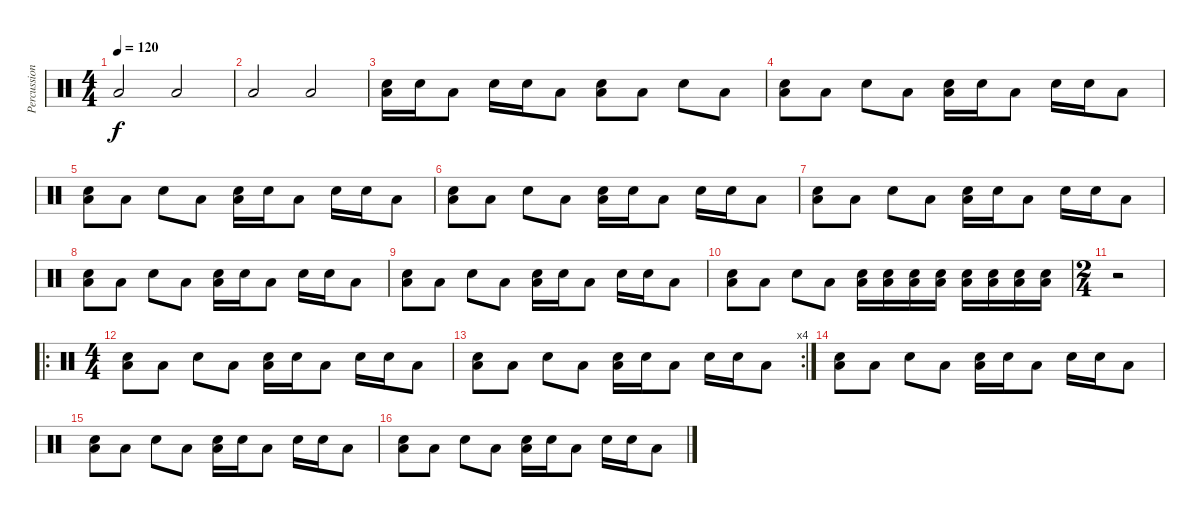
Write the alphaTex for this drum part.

\track ("Percussions" "Percussion") {instrument percussion}
\staff {score}
\articulation defaults
\ts (4 4)
\tempo 120
\clef neutral
\ks c "Low Floor Tom (hit)".2{dy f} "Low Floor Tom (hit)".2
|
"Low Floor Tom (hit)".2 "Low Floor Tom (hit)".2 |
("Electric Snare (hit)" "Low Floor Tom (hit)").16 "Electric Snare (hit)".16 "Low Tom (hit)".8 "Electric Snare (hit)".16 "Electric Snare (hit)".16 "Low Tom (hit)".8 ("Electric Snare (hit)" "Low Floor Tom (hit)").8 "Low Tom (hit)".8 "Electric Snare (hit)".8 "Low Tom (hit)".8 |
("Electric Snare (hit)" "Low Floor Tom (hit)").8 "Low Tom (hit)".8 "Electric Snare (hit)".8 "Low Tom (hit)".8 ("Electric Snare (hit)" "Low Floor Tom (hit)").16 "Electric Snare (hit)".16 "Low Tom (hit)".8 "Electric Snare (hit)".16 "Electric Snare (hit)".16 "Low Tom (hit)".8 |
("Electric Snare (hit)" "Low Floor Tom (hit)").8 "Low Tom (hit)".8 "Electric Snare (hit)".8 "Low Tom (hit)".8 ("Electric Snare (hit)" "Low Floor Tom (hit)").16 "Electric Snare (hit)".16 "Low Tom (hit)".8 "Electric Snare (hit)".16 "Electric Snare (hit)".16 "Low Tom (hit)".8 |
("Electric Snare (hit)" "Low Floor Tom (hit)").8 "Low Tom (hit)".8 "Electric Snare (hit)".8 "Low Tom (hit)".8 ("Electric Snare (hit)" "Low Floor Tom (hit)").16 "Electric Snare (hit)".16 "Low Tom (hit)".8 "Electric Snare (hit)".16 "Electric Snare (hit)".16 "Low Tom (hit)".8 |
("Electric Snare (hit)" "Low Floor Tom (hit)").8 "Low Tom (hit)".8 "Electric Snare (hit)".8 "Low Tom (hit)".8 ("Electric Snare (hit)" "Low Floor Tom (hit)").16 "Electric Snare (hit)".16 "Low Tom (hit)".8 "Electric Snare (hit)".16 "Electric Snare (hit)".16 "Low Tom (hit)".8 |
("Electric Snare (hit)" "Low Floor Tom (hit)").8 "Low Tom (hit)".8 "Electric Snare (hit)".8 "Low Tom (hit)".8 ("Electric Snare (hit)" "Low Floor Tom (hit)").16 "Electric Snare (hit)".16 "Low Tom (hit)".8 "Electric Snare (hit)".16 "Electric Snare (hit)".16 "Low Tom (hit)".8 |
("Electric Snare (hit)" "Low Floor Tom (hit)").8 "Low Tom (hit)".8 "Electric Snare (hit)".8 "Low Tom (hit)".8 ("Electric Snare (hit)" "Low Floor Tom (hit)").16 "Electric Snare (hit)".16 "Low Tom (hit)".8 "Electric Snare (hit)".16 "Electric Snare (hit)".16 "Low Tom (hit)".8 |
("Electric Snare (hit)" "Low Floor Tom (hit)").8 "Low Tom (hit)".8 "Electric Snare (hit)".8 "Low Tom (hit)".8 ("Electric Snare (hit)" "Low Floor Tom (hit)").16 ("Electric Snare (hit)" "Low Floor Tom (hit)").16 ("Electric Snare (hit)" "Low Floor Tom (hit)").16 ("Electric Snare (hit)" "Low Floor Tom (hit)").16 ("Electric Snare (hit)" "Low Floor Tom (hit)").16 ("Electric Snare (hit)" "Low Floor Tom (hit)").16 ("Electric Snare (hit)" "Low Floor Tom (hit)").16 ("Electric Snare (hit)" "Low Floor Tom (hit)").16 |
\ts (2 4)
r.2 |
\ro
\ts (4 4)
("Electric Snare (hit)" "Low Floor Tom (hit)").8 "Low Tom (hit)".8 "Electric Snare (hit)".8 "Low Tom (hit)".8 ("Electric Snare (hit)" "Low Floor Tom (hit)").16 "Electric Snare (hit)".16 "Low Tom (hit)".8 "Electric Snare (hit)".16 "Electric Snare (hit)".16 "Low Tom (hit)".8 |
\rc 4
("Electric Snare (hit)" "Low Floor Tom (hit)").8 "Low Tom (hit)".8 "Electric Snare (hit)".8 "Low Tom (hit)".8 ("Electric Snare (hit)" "Low Floor Tom (hit)").16 "Electric Snare (hit)".16 "Low Tom (hit)".8 "Electric Snare (hit)".16 "Electric Snare (hit)".16 "Low Tom (hit)".8 |
("Electric Snare (hit)" "Low Floor Tom (hit)").8 "Low Tom (hit)".8 "Electric Snare (hit)".8 "Low Tom (hit)".8 ("Electric Snare (hit)" "Low Floor Tom (hit)").16 "Electric Snare (hit)".16 "Low Tom (hit)".8 "Electric Snare (hit)".16 "Electric Snare (hit)".16 "Low Tom (hit)".8 |
("Electric Snare (hit)" "Low Floor Tom (hit)").8 "Low Tom (hit)".8 "Electric Snare (hit)".8 "Low Tom (hit)".8 ("Electric Snare (hit)" "Low Floor Tom (hit)").16 "Electric Snare (hit)".16 "Low Tom (hit)".8 "Electric Snare (hit)".16 "Electric Snare (hit)".16 "Low Tom (hit)".8 |
("Electric Snare (hit)" "Low Floor Tom (hit)").8 "Low Tom (hit)".8 "Electric Snare (hit)".8 "Low Tom (hit)".8 ("Electric Snare (hit)" "Low Floor Tom (hit)").16 "Electric Snare (hit)".16 "Low Tom (hit)".8 "Electric Snare (hit)".16 "Electric Snare (hit)".16 "Low Tom (hit)".8
